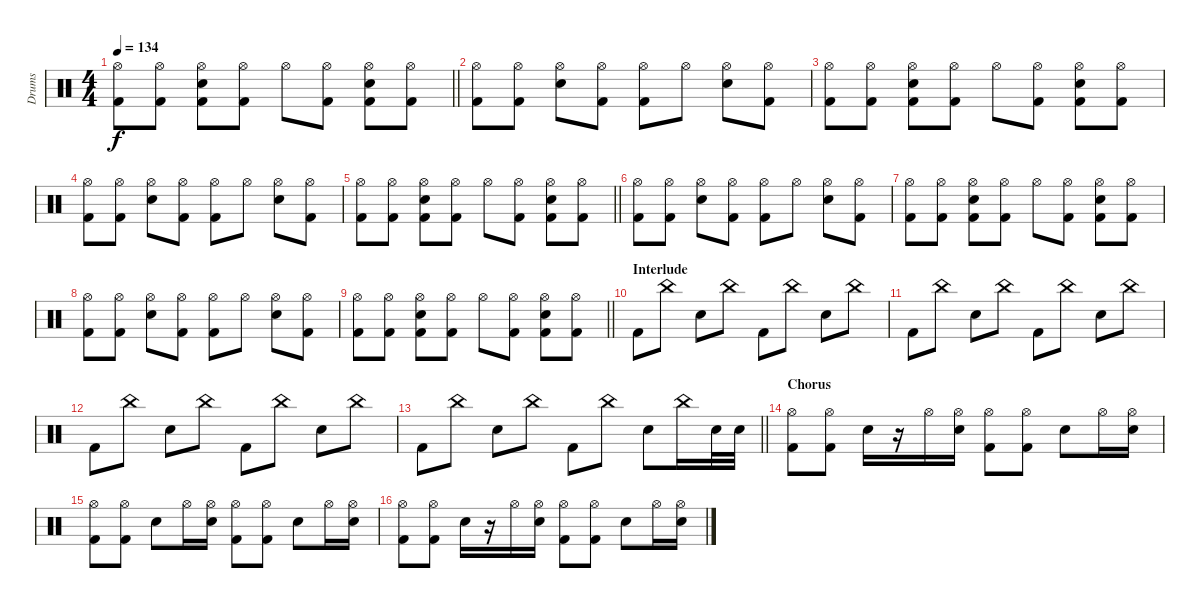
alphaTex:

\track ("Drums" "Drums") {instrument percussion}
\staff {score}
\articulation defaults
\ts (4 4)
\tempo 134
\clef neutral
\barLineRight lightlight
\ks c
("Hi-Hat (open)" "Kick (hit) 2").8{dy f} ("Hi-Hat (open)" "Kick (hit) 2").8 ("Hi-Hat (open)" "Electric Snare (hit)" "Kick (hit) 2").8 ("Hi-Hat (open)" "Kick (hit) 2").8 "Hi-Hat (open)".8 ("Hi-Hat (open)" "Kick (hit) 2").8 ("Hi-Hat (open)" "Electric Snare (hit)" "Kick (hit) 2").8 ("Hi-Hat (open)" "Kick (hit) 2").8 |
("Hi-Hat (open)" "Kick (hit) 2").8 ("Hi-Hat (open)" "Kick (hit) 2").8 ("Hi-Hat (open)" "Electric Snare (hit)").8 ("Hi-Hat (open)" "Kick (hit) 2").8 ("Hi-Hat (open)" "Kick (hit) 2").8 "Hi-Hat (open)".8 ("Hi-Hat (open)" "Electric Snare (hit)").8 ("Hi-Hat (open)" "Kick (hit) 2").8 |
("Hi-Hat (open)" "Kick (hit) 2").8 ("Hi-Hat (open)" "Kick (hit) 2").8 ("Hi-Hat (open)" "Electric Snare (hit)" "Kick (hit) 2").8 ("Hi-Hat (open)" "Kick (hit) 2").8 "Hi-Hat (open)".8 ("Hi-Hat (open)" "Kick (hit) 2").8 ("Hi-Hat (open)" "Electric Snare (hit)" "Kick (hit) 2").8 ("Hi-Hat (open)" "Kick (hit) 2").8 |
("Hi-Hat (open)" "Kick (hit) 2").8 ("Hi-Hat (open)" "Kick (hit) 2").8 ("Hi-Hat (open)" "Electric Snare (hit)").8 ("Hi-Hat (open)" "Kick (hit) 2").8 ("Hi-Hat (open)" "Kick (hit) 2").8 "Hi-Hat (open)".8 ("Hi-Hat (open)" "Electric Snare (hit)").8 ("Hi-Hat (open)" "Kick (hit) 2").8 |
\barLineRight lightlight
("Hi-Hat (open)" "Kick (hit) 2").8 ("Hi-Hat (open)" "Kick (hit) 2").8 ("Hi-Hat (open)" "Electric Snare (hit)" "Kick (hit) 2").8 ("Hi-Hat (open)" "Kick (hit) 2").8 "Hi-Hat (open)".8 ("Hi-Hat (open)" "Kick (hit) 2").8 ("Hi-Hat (open)" "Electric Snare (hit)" "Kick (hit) 2").8 ("Hi-Hat (open)" "Kick (hit) 2").8 |
("Hi-Hat (open)" "Kick (hit) 2").8 ("Hi-Hat (open)" "Kick (hit) 2").8 ("Hi-Hat (open)" "Electric Snare (hit)").8 ("Hi-Hat (open)" "Kick (hit) 2").8 ("Hi-Hat (open)" "Kick (hit) 2").8 "Hi-Hat (open)".8 ("Hi-Hat (open)" "Electric Snare (hit)").8 ("Hi-Hat (open)" "Kick (hit) 2").8 |
("Hi-Hat (open)" "Kick (hit) 2").8 ("Hi-Hat (open)" "Kick (hit) 2").8 ("Hi-Hat (open)" "Electric Snare (hit)" "Kick (hit) 2").8 ("Hi-Hat (open)" "Kick (hit) 2").8 "Hi-Hat (open)".8 ("Hi-Hat (open)" "Kick (hit) 2").8 ("Hi-Hat (open)" "Electric Snare (hit)" "Kick (hit) 2").8 ("Hi-Hat (open)" "Kick (hit) 2").8 |
("Hi-Hat (open)" "Kick (hit) 2").8 ("Hi-Hat (open)" "Kick (hit) 2").8 ("Hi-Hat (open)" "Electric Snare (hit)").8 ("Hi-Hat (open)" "Kick (hit) 2").8 ("Hi-Hat (open)" "Kick (hit) 2").8 "Hi-Hat (open)".8 ("Hi-Hat (open)" "Electric Snare (hit)").8 ("Hi-Hat (open)" "Kick (hit) 2").8 |
\barLineRight lightlight
("Hi-Hat (open)" "Kick (hit) 2").8 ("Hi-Hat (open)" "Kick (hit) 2").8 ("Hi-Hat (open)" "Electric Snare (hit)" "Kick (hit) 2").8 ("Hi-Hat (open)" "Kick (hit) 2").8 "Hi-Hat (open)".8 ("Hi-Hat (open)" "Kick (hit) 2").8 ("Hi-Hat (open)" "Electric Snare (hit)" "Kick (hit) 2").8 ("Hi-Hat (open)" "Kick (hit) 2").8 |
\section ("" "Interlude")
"Kick (hit) 2".8 "China (hit)".8 "Electric Snare (hit)".8 "China (hit)".8 "Kick (hit) 2".8 "China (hit)".8 "Electric Snare (hit)".8 "China (hit)".8 |
"Kick (hit) 2".8 "China (hit)".8 "Electric Snare (hit)".8 "China (hit)".8 "Kick (hit) 2".8 "China (hit)".8 "Electric Snare (hit)".8 "China (hit)".8 |
"Kick (hit) 2".8 "China (hit)".8 "Electric Snare (hit)".8 "China (hit)".8 "Kick (hit) 2".8 "China (hit)".8 "Electric Snare (hit)".8 "China (hit)".8 |
\barLineRight lightlight "Kick (hit) 2".8 "China (hit)".8 "Electric Snare (hit)".8 "China (hit)".8 "Kick (hit) 2".8 "China (hit)".8 "Electric Snare (hit)".8 "China (hit)".16 "Electric Snare (hit)".32 "Electric Snare (hit)".32
|
\section ("" "Chorus")
("Hi-Hat (open)" "Kick (hit) 2").8 ("Hi-Hat (open)" "Kick (hit) 2").8 "Electric Snare (hit)".16 r.16 "Hi-Hat (open)".16 ("Hi-Hat (open)" "Electric Snare (hit)").16 ("Hi-Hat (open)" "Kick (hit) 2").8 ("Hi-Hat (open)" "Kick (hit) 2").8 "Electric Snare (hit)".8 "Hi-Hat (open)".16 ("Hi-Hat (open)" "Electric Snare (hit)").16 |
("Hi-Hat (open)" "Kick (hit) 2").8 ("Hi-Hat (open)" "Kick (hit) 2").8 "Electric Snare (hit)".8 "Hi-Hat (open)".16 ("Hi-Hat (open)" "Electric Snare (hit)").16 ("Hi-Hat (open)" "Kick (hit) 2").8 ("Hi-Hat (open)" "Kick (hit) 2").8 "Electric Snare (hit)".8 "Hi-Hat (open)".16 ("Hi-Hat (open)" "Electric Snare (hit)").16 |
("Hi-Hat (open)" "Kick (hit) 2").8 ("Hi-Hat (open)" "Kick (hit) 2").8 "Electric Snare (hit)".16 r.16 "Hi-Hat (open)".16 ("Hi-Hat (open)" "Electric Snare (hit)").16 ("Hi-Hat (open)" "Kick (hit) 2").8 ("Hi-Hat (open)" "Kick (hit) 2").8 "Electric Snare (hit)".8 "Hi-Hat (open)".16 ("Hi-Hat (open)" "Electric Snare (hit)").16
